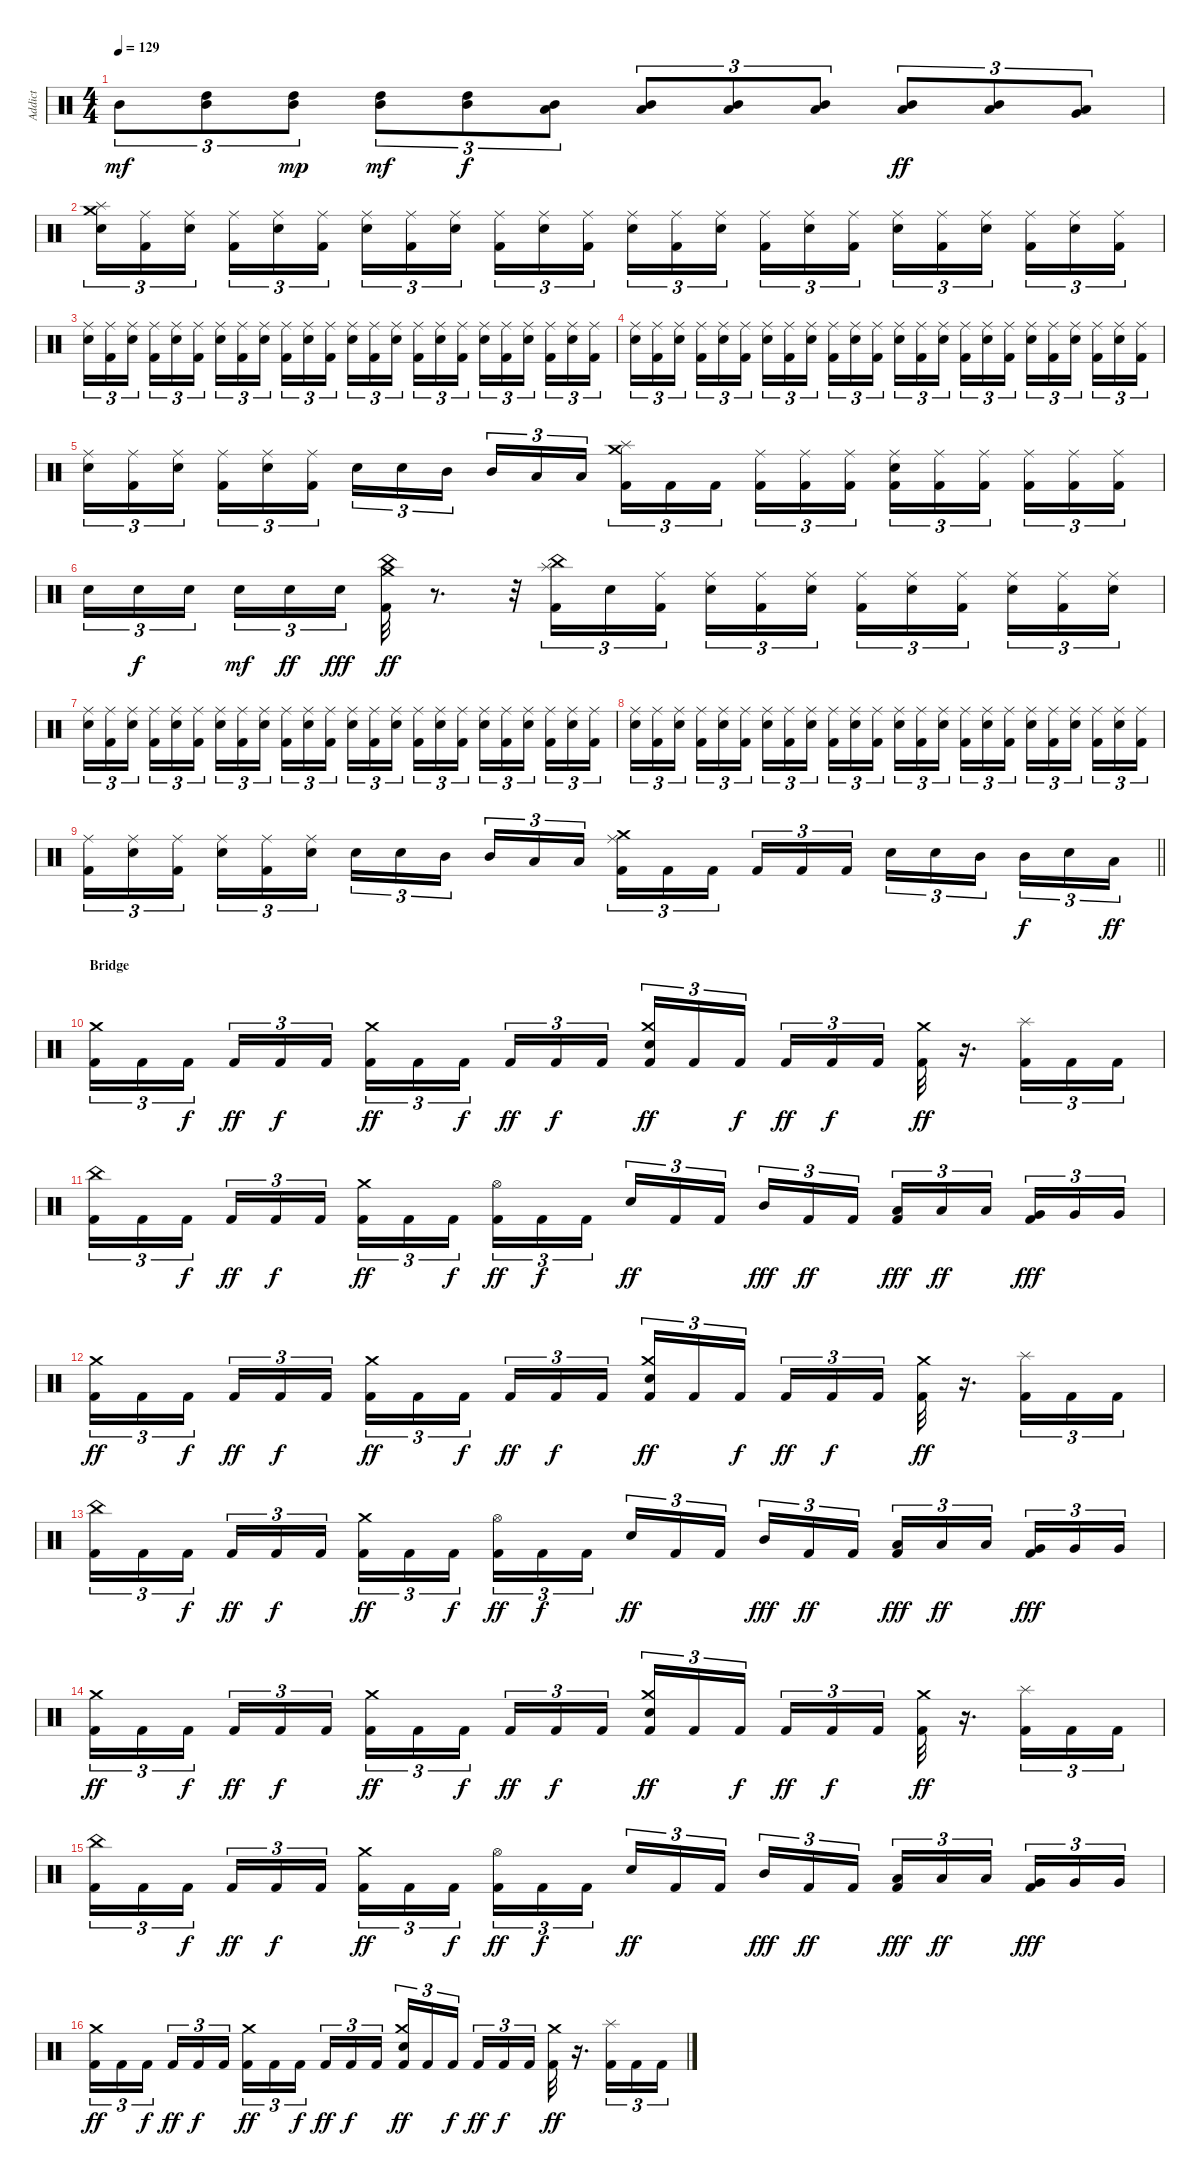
\track ("Addict" "Addict") {instrument percussion}
\staff {score}
\articulation defaults
\ts (4 4)
\tempo 129
\clef neutral
\ks c "Mid Tom (hit)".8{tu (3 2) dy mf}
("Mid Tom (hit)" "High Tom (hit)").8{tu (3 2)} ("Mid Tom (hit)" "High Tom (hit)").8{tu (3 2) dy mp} ("Mid Tom (hit)" "High Tom (hit)").8{tu (3 2) dy mf} ("Mid Tom (hit)" "High Tom (hit)").8{tu (3 2) dy f} ("Low Tom (hit)" "Mid Tom (hit)").8{tu (3 2)} ("Low Tom (hit)" "Mid Tom (hit)").8{tu (3 2)} ("Low Tom (hit)" "Mid Tom (hit)").8{tu (3 2)} ("Low Tom (hit)" "Mid Tom (hit)").8{tu (3 2)} ("Low Tom (hit)" "Mid Tom (hit)").8{tu (3 2) dy ff} ("Low Tom (hit)" "Mid Tom (hit)").8{tu (3 2)} ("Low Tom (hit)" "Very Low Tom (hit)").8{tu (3 2)} |
("Snare (hit) 2" "Crash medium (hit)" "Splash (hit)").16{tu (3 2)} ("Kick (hit) 2" "Ride (middle)").16{tu (3 2)} ("Snare (hit) 2" "Ride (middle)").16{tu (3 2) beam splitsecondary} ("Kick (hit) 2" "Ride (middle)").16{tu (3 2)} ("Snare (hit) 2" "Ride (middle)").16{tu (3 2)} ("Kick (hit) 2" "Ride (middle)").16{tu (3 2)} ("Snare (hit) 2" "Ride (middle)").16{tu (3 2)} ("Kick (hit) 2" "Ride (middle)").16{tu (3 2)} ("Snare (hit) 2" "Ride (middle)").16{tu (3 2) beam splitsecondary} ("Kick (hit) 2" "Ride (middle)").16{tu (3 2)} ("Snare (hit) 2" "Ride (middle)").16{tu (3 2)} ("Kick (hit) 2" "Ride (middle)").16{tu (3 2)} ("Snare (hit) 2" "Ride (middle)").16{tu (3 2)} ("Kick (hit) 2" "Ride (middle)").16{tu (3 2)} ("Snare (hit) 2" "Ride (middle)").16{tu (3 2) beam splitsecondary} ("Kick (hit) 2" "Ride (middle)").16{tu (3 2)} ("Snare (hit) 2" "Ride (middle)").16{tu (3 2)} ("Kick (hit) 2" "Ride (middle)").16{tu (3 2)} ("Snare (hit) 2" "Ride (middle)").16{tu (3 2)} ("Kick (hit) 2" "Ride (middle)").16{tu (3 2)} ("Snare (hit) 2" "Ride (middle)").16{tu (3 2) beam splitsecondary} ("Kick (hit) 2" "Ride (middle)").16{tu (3 2)} ("Snare (hit) 2" "Ride (middle)").16{tu (3 2)} ("Kick (hit) 2" "Ride (middle)").16{tu (3 2)} |
("Snare (hit) 2" "Ride (middle)").16{tu (3 2)} ("Kick (hit) 2" "Ride (middle)").16{tu (3 2)} ("Snare (hit) 2" "Ride (middle)").16{tu (3 2) beam splitsecondary} ("Kick (hit) 2" "Ride (middle)").16{tu (3 2)} ("Snare (hit) 2" "Ride (middle)").16{tu (3 2)} ("Kick (hit) 2" "Ride (middle)").16{tu (3 2)} ("Snare (hit) 2" "Ride (middle)").16{tu (3 2)} ("Kick (hit) 2" "Ride (middle)").16{tu (3 2)} ("Snare (hit) 2" "Ride (middle)").16{tu (3 2) beam splitsecondary} ("Kick (hit) 2" "Ride (middle)").16{tu (3 2)} ("Snare (hit) 2" "Ride (middle)").16{tu (3 2)} ("Kick (hit) 2" "Ride (middle)").16{tu (3 2)} ("Snare (hit) 2" "Ride (middle)").16{tu (3 2)} ("Kick (hit) 2" "Ride (middle)").16{tu (3 2)} ("Snare (hit) 2" "Ride (middle)").16{tu (3 2) beam splitsecondary} ("Kick (hit) 2" "Ride (middle)").16{tu (3 2)} ("Snare (hit) 2" "Ride (middle)").16{tu (3 2)} ("Kick (hit) 2" "Ride (middle)").16{tu (3 2)} ("Snare (hit) 2" "Ride (middle)").16{tu (3 2)} ("Kick (hit) 2" "Ride (middle)").16{tu (3 2)} ("Snare (hit) 2" "Ride (middle)").16{tu (3 2) beam splitsecondary} ("Kick (hit) 2" "Ride (middle)").16{tu (3 2)} ("Snare (hit) 2" "Ride (middle)").16{tu (3 2)} ("Kick (hit) 2" "Ride (middle)").16{tu (3 2)} |
("Snare (hit) 2" "Ride (middle)").16{tu (3 2)} ("Kick (hit) 2" "Ride (middle)").16{tu (3 2)} ("Snare (hit) 2" "Ride (middle)").16{tu (3 2) beam splitsecondary} ("Kick (hit) 2" "Ride (middle)").16{tu (3 2)} ("Snare (hit) 2" "Ride (middle)").16{tu (3 2)} ("Kick (hit) 2" "Ride (middle)").16{tu (3 2)} ("Snare (hit) 2" "Ride (middle)").16{tu (3 2)} ("Kick (hit) 2" "Ride (middle)").16{tu (3 2)} ("Snare (hit) 2" "Ride (middle)").16{tu (3 2) beam splitsecondary} ("Kick (hit) 2" "Ride (middle)").16{tu (3 2)} ("Snare (hit) 2" "Ride (middle)").16{tu (3 2)} ("Kick (hit) 2" "Ride (middle)").16{tu (3 2)} ("Snare (hit) 2" "Ride (middle)").16{tu (3 2)} ("Kick (hit) 2" "Ride (middle)").16{tu (3 2)} ("Snare (hit) 2" "Ride (middle)").16{tu (3 2) beam splitsecondary} ("Kick (hit) 2" "Ride (middle)").16{tu (3 2)} ("Snare (hit) 2" "Ride (middle)").16{tu (3 2)} ("Kick (hit) 2" "Ride (middle)").16{tu (3 2)} ("Snare (hit) 2" "Ride (middle)").16{tu (3 2)} ("Kick (hit) 2" "Ride (middle)").16{tu (3 2)} ("Snare (hit) 2" "Ride (middle)").16{tu (3 2) beam splitsecondary} ("Kick (hit) 2" "Ride (middle)").16{tu (3 2)} ("Snare (hit) 2" "Ride (middle)").16{tu (3 2)} ("Kick (hit) 2" "Ride (middle)").16{tu (3 2)} |
("Snare (hit) 2" "Ride (middle)").16{tu (3 2)} ("Kick (hit) 2" "Ride (middle)").16{tu (3 2)} ("Snare (hit) 2" "Ride (middle)").16{tu (3 2) beam splitsecondary} ("Kick (hit) 2" "Ride (middle)").16{tu (3 2)} ("Snare (hit) 2" "Ride (middle)").16{tu (3 2)} ("Kick (hit) 2" "Ride (middle)").16{tu (3 2)} "Snare (hit) 2".16{tu (3 2)} "Snare (hit) 2".16{tu (3 2)} "Mid Tom (hit)".16{tu (3 2) beam splitsecondary} "Mid Tom (hit)".16{tu (3 2)} "Low Tom (hit)".16{tu (3 2)} "Low Tom (hit)".16{tu (3 2)} ("Kick (hit) 2" "Crash medium (hit)" "Splash (hit)").16{tu (3 2)} "Kick (hit) 2".16{tu (3 2)} "Kick (hit) 2".16{tu (3 2) beam splitsecondary} ("Kick (hit) 2" "Ride (middle)").16{tu (3 2)} ("Kick (hit) 2" "Ride (middle)").16{tu (3 2)} ("Kick (hit) 2" "Ride (middle)").16{tu (3 2)} ("Kick (hit) 2" "Snare (hit) 2" "Ride (middle)").16{tu (3 2)} ("Kick (hit) 2" "Ride (middle)").16{tu (3 2)} ("Kick (hit) 2" "Ride (middle)").16{tu (3 2) beam splitsecondary} ("Kick (hit) 2" "Ride (middle)").16{tu (3 2)} ("Kick (hit) 2" "Ride (middle)").16{tu (3 2)} ("Kick (hit) 2" "Ride (middle)").16{tu (3 2)} |
"Snare (hit) 2".16{tu (3 2)} "Snare (hit) 2".16{tu (3 2) dy f} "Snare (hit) 2".16{tu (3 2) beam splitsecondary} "Snare (hit) 2".16{tu (3 2) dy mf} "Snare (hit) 2".16{tu (3 2) dy ff} "Snare (hit) 2".16{tu (3 2) dy fff} ("Kick (hit) 2" "Crash medium (hit)" "China (hit)").32{dy ff} r.8{d} r.32 ("Kick (hit) 2" "Splash (hit)" "China (hit)").16{tu (3 2)} "Snare (hit) 2".16{tu (3 2)} ("Kick (hit) 2" "Ride (middle)").16{tu (3 2) beam splitsecondary} ("Snare (hit) 2" "Ride (middle)").16{tu (3 2)} ("Kick (hit) 2" "Ride (middle)").16{tu (3 2)} ("Snare (hit) 2" "Ride (middle)").16{tu (3 2)} ("Kick (hit) 2" "Ride (middle)").16{tu (3 2)} ("Snare (hit) 2" "Ride (middle)").16{tu (3 2)} ("Kick (hit) 2" "Ride (middle)").16{tu (3 2) beam splitsecondary} ("Snare (hit) 2" "Ride (middle)").16{tu (3 2)} ("Kick (hit) 2" "Ride (middle)").16{tu (3 2)} ("Snare (hit) 2" "Ride (middle)").16{tu (3 2)} |
("Snare (hit) 2" "Ride (middle)").16{tu (3 2)} ("Kick (hit) 2" "Ride (middle)").16{tu (3 2)} ("Snare (hit) 2" "Ride (middle)").16{tu (3 2) beam splitsecondary} ("Kick (hit) 2" "Ride (middle)").16{tu (3 2)} ("Snare (hit) 2" "Ride (middle)").16{tu (3 2)} ("Kick (hit) 2" "Ride (middle)").16{tu (3 2)} ("Snare (hit) 2" "Ride (middle)").16{tu (3 2)} ("Kick (hit) 2" "Ride (middle)").16{tu (3 2)} ("Snare (hit) 2" "Ride (middle)").16{tu (3 2) beam splitsecondary} ("Kick (hit) 2" "Ride (middle)").16{tu (3 2)} ("Snare (hit) 2" "Ride (middle)").16{tu (3 2)} ("Kick (hit) 2" "Ride (middle)").16{tu (3 2)} ("Snare (hit) 2" "Ride (middle)").16{tu (3 2)} ("Kick (hit) 2" "Ride (middle)").16{tu (3 2)} ("Snare (hit) 2" "Ride (middle)").16{tu (3 2) beam splitsecondary} ("Kick (hit) 2" "Ride (middle)").16{tu (3 2)} ("Snare (hit) 2" "Ride (middle)").16{tu (3 2)} ("Kick (hit) 2" "Ride (middle)").16{tu (3 2)} ("Snare (hit) 2" "Ride (middle)").16{tu (3 2)} ("Kick (hit) 2" "Ride (middle)").16{tu (3 2)} ("Snare (hit) 2" "Ride (middle)").16{tu (3 2) beam splitsecondary} ("Kick (hit) 2" "Ride (middle)").16{tu (3 2)} ("Snare (hit) 2" "Ride (middle)").16{tu (3 2)} ("Kick (hit) 2" "Ride (middle)").16{tu (3 2)} |
("Snare (hit) 2" "Ride (middle)").16{tu (3 2)} ("Kick (hit) 2" "Ride (middle)").16{tu (3 2)} ("Snare (hit) 2" "Ride (middle)").16{tu (3 2) beam splitsecondary} ("Kick (hit) 2" "Ride (middle)").16{tu (3 2)} ("Snare (hit) 2" "Ride (middle)").16{tu (3 2)} ("Kick (hit) 2" "Ride (middle)").16{tu (3 2)} ("Snare (hit) 2" "Ride (middle)").16{tu (3 2)} ("Kick (hit) 2" "Ride (middle)").16{tu (3 2)} ("Snare (hit) 2" "Ride (middle)").16{tu (3 2) beam splitsecondary} ("Kick (hit) 2" "Ride (middle)").16{tu (3 2)} ("Snare (hit) 2" "Ride (middle)").16{tu (3 2)} ("Kick (hit) 2" "Ride (middle)").16{tu (3 2)} ("Snare (hit) 2" "Ride (middle)").16{tu (3 2)} ("Kick (hit) 2" "Ride (middle)").16{tu (3 2)} ("Snare (hit) 2" "Ride (middle)").16{tu (3 2) beam splitsecondary} ("Kick (hit) 2" "Ride (middle)").16{tu (3 2)} ("Snare (hit) 2" "Ride (middle)").16{tu (3 2)} ("Kick (hit) 2" "Ride (middle)").16{tu (3 2)} ("Snare (hit) 2" "Ride (middle)").16{tu (3 2)} ("Kick (hit) 2" "Ride (middle)").16{tu (3 2)} ("Snare (hit) 2" "Ride (middle)").16{tu (3 2) beam splitsecondary} ("Kick (hit) 2" "Ride (middle)").16{tu (3 2)} ("Snare (hit) 2" "Ride (middle)").16{tu (3 2)} ("Kick (hit) 2" "Ride (middle)").16{tu (3 2)} |
\barLineRight lightlight
("Kick (hit) 2" "Ride (middle)").16{tu (3 2)} ("Snare (hit) 2" "Ride (middle)").16{tu (3 2)} ("Kick (hit) 2" "Ride (middle)").16{tu (3 2) beam splitsecondary} ("Snare (hit) 2" "Ride (middle)").16{tu (3 2)} ("Kick (hit) 2" "Ride (middle)").16{tu (3 2)} ("Snare (hit) 2" "Ride (middle)").16{tu (3 2)} "Snare (hit) 2".16{tu (3 2)} "Snare (hit) 2".16{tu (3 2)} "Mid Tom (hit)".16{tu (3 2) beam splitsecondary} "Mid Tom (hit)".16{tu (3 2)} "Low Tom (hit)".16{tu (3 2)} "Low Tom (hit)".16{tu (3 2)} ("Kick (hit) 2" "Ride (middle)" "Crash medium (hit)").16{tu (3 2)} "Kick (hit) 2".16{tu (3 2)} "Kick (hit) 2".16{tu (3 2) beam splitsecondary} "Kick (hit) 2".16{tu (3 2)} "Kick (hit) 2".16{tu (3 2)} "Kick (hit) 2".16{tu (3 2)} "Snare (hit) 2".16{tu (3 2)} "Snare (hit) 2".16{tu (3 2)} "Mid Tom (hit)".16{tu (3 2) beam splitsecondary} "Mid Tom (hit)".16{tu (3 2) dy f} "Snare (hit) 2".16{tu (3 2)} "Low Tom (hit)".16{tu (3 2) dy ff} |
\section ("" "Bridge")
("Kick (hit) 2" "Crash medium (hit)").16{tu (3 2)} "Kick (hit) 2".16{tu (3 2)} "Kick (hit) 2".16{tu (3 2) dy f beam splitsecondary} "Kick (hit) 2".16{tu (3 2) dy ff} "Kick (hit) 2".16{tu (3 2) dy f} "Kick (hit) 2".16{tu (3 2)} ("Kick (hit) 2" "Crash medium (hit)").16{tu (3 2) dy ff} "Kick (hit) 2".16{tu (3 2)} "Kick (hit) 2".16{tu (3 2) dy f beam splitsecondary} "Kick (hit) 2".16{tu (3 2) dy ff} "Kick (hit) 2".16{tu (3 2) dy f} "Kick (hit) 2".16{tu (3 2)} ("Kick (hit) 2" "Snare (hit) 2" "Crash medium (hit)").16{tu (3 2) dy ff} "Kick (hit) 2".16{tu (3 2)} "Kick (hit) 2".16{tu (3 2) dy f beam splitsecondary} "Kick (hit) 2".16{tu (3 2) dy ff} "Kick (hit) 2".16{tu (3 2) dy f} "Kick (hit) 2".16{tu (3 2)} ("Kick (hit) 2" "Crash medium (hit)").32{dy ff} r.16{d} ("Kick (hit) 2" "Splash (hit)").16{tu (3 2)} "Kick (hit) 2".16{tu (3 2)} "Kick (hit) 2".16{tu (3 2)} |
("Kick (hit) 2" "China (hit)").16{tu (3 2)} "Kick (hit) 2".16{tu (3 2)} "Kick (hit) 2".16{tu (3 2) dy f beam splitsecondary} "Kick (hit) 2".16{tu (3 2) dy ff} "Kick (hit) 2".16{tu (3 2) dy f} "Kick (hit) 2".16{tu (3 2)} ("Kick (hit) 2" "Crash medium (hit)").16{tu (3 2) dy ff} "Kick (hit) 2".16{tu (3 2)} "Kick (hit) 2".16{tu (3 2) dy f beam splitsecondary} ("Kick (hit) 2" "Hi-Hat (open)").16{tu (3 2) dy ff} "Kick (hit) 2".16{tu (3 2) dy f} "Kick (hit) 2".16{tu (3 2)} "Snare (hit) 2".16{tu (3 2) dy ff} "Kick (hit) 2".16{tu (3 2)} "Kick (hit) 2".16{tu (3 2) beam splitsecondary} "Mid Tom (hit)".16{tu (3 2) dy fff} "Kick (hit) 2".16{tu (3 2) dy ff} "Kick (hit) 2".16{tu (3 2)} ("Kick (hit) 2" "Low Tom (hit)").16{tu (3 2) dy fff} "Low Tom (hit)".16{tu (3 2) dy ff} "Low Tom (hit)".16{tu (3 2) beam splitsecondary} ("Kick (hit) 2" "Very Low Tom (hit)").16{tu (3 2) dy fff} "Very Low Tom (hit)".16{tu (3 2)} "Very Low Tom (hit)".16{tu (3 2)} |
("Kick (hit) 2" "Crash medium (hit)").16{tu (3 2) dy ff} "Kick (hit) 2".16{tu (3 2)} "Kick (hit) 2".16{tu (3 2) dy f beam splitsecondary} "Kick (hit) 2".16{tu (3 2) dy ff} "Kick (hit) 2".16{tu (3 2) dy f} "Kick (hit) 2".16{tu (3 2)} ("Kick (hit) 2" "Crash medium (hit)").16{tu (3 2) dy ff} "Kick (hit) 2".16{tu (3 2)} "Kick (hit) 2".16{tu (3 2) dy f beam splitsecondary} "Kick (hit) 2".16{tu (3 2) dy ff} "Kick (hit) 2".16{tu (3 2) dy f} "Kick (hit) 2".16{tu (3 2)} ("Kick (hit) 2" "Snare (hit) 2" "Crash medium (hit)").16{tu (3 2) dy ff} "Kick (hit) 2".16{tu (3 2)} "Kick (hit) 2".16{tu (3 2) dy f beam splitsecondary} "Kick (hit) 2".16{tu (3 2) dy ff} "Kick (hit) 2".16{tu (3 2) dy f} "Kick (hit) 2".16{tu (3 2)} ("Kick (hit) 2" "Crash medium (hit)").32{dy ff} r.16{d} ("Kick (hit) 2" "Splash (hit)").16{tu (3 2)} "Kick (hit) 2".16{tu (3 2)} "Kick (hit) 2".16{tu (3 2)} |
("Kick (hit) 2" "China (hit)").16{tu (3 2)} "Kick (hit) 2".16{tu (3 2)} "Kick (hit) 2".16{tu (3 2) dy f beam splitsecondary} "Kick (hit) 2".16{tu (3 2) dy ff} "Kick (hit) 2".16{tu (3 2) dy f} "Kick (hit) 2".16{tu (3 2)} ("Kick (hit) 2" "Crash medium (hit)").16{tu (3 2) dy ff} "Kick (hit) 2".16{tu (3 2)} "Kick (hit) 2".16{tu (3 2) dy f beam splitsecondary} ("Kick (hit) 2" "Hi-Hat (open)").16{tu (3 2) dy ff} "Kick (hit) 2".16{tu (3 2) dy f} "Kick (hit) 2".16{tu (3 2)} "Snare (hit) 2".16{tu (3 2) dy ff} "Kick (hit) 2".16{tu (3 2)} "Kick (hit) 2".16{tu (3 2) beam splitsecondary} "Mid Tom (hit)".16{tu (3 2) dy fff} "Kick (hit) 2".16{tu (3 2) dy ff} "Kick (hit) 2".16{tu (3 2)} ("Kick (hit) 2" "Low Tom (hit)").16{tu (3 2) dy fff} "Low Tom (hit)".16{tu (3 2) dy ff} "Low Tom (hit)".16{tu (3 2) beam splitsecondary} ("Kick (hit) 2" "Very Low Tom (hit)").16{tu (3 2) dy fff} "Very Low Tom (hit)".16{tu (3 2)} "Very Low Tom (hit)".16{tu (3 2)} |
("Kick (hit) 2" "Crash medium (hit)").16{tu (3 2) dy ff} "Kick (hit) 2".16{tu (3 2)} "Kick (hit) 2".16{tu (3 2) dy f beam splitsecondary} "Kick (hit) 2".16{tu (3 2) dy ff} "Kick (hit) 2".16{tu (3 2) dy f} "Kick (hit) 2".16{tu (3 2)} ("Kick (hit) 2" "Crash medium (hit)").16{tu (3 2) dy ff} "Kick (hit) 2".16{tu (3 2)} "Kick (hit) 2".16{tu (3 2) dy f beam splitsecondary} "Kick (hit) 2".16{tu (3 2) dy ff} "Kick (hit) 2".16{tu (3 2) dy f} "Kick (hit) 2".16{tu (3 2)} ("Kick (hit) 2" "Snare (hit) 2" "Crash medium (hit)").16{tu (3 2) dy ff} "Kick (hit) 2".16{tu (3 2)} "Kick (hit) 2".16{tu (3 2) dy f beam splitsecondary} "Kick (hit) 2".16{tu (3 2) dy ff} "Kick (hit) 2".16{tu (3 2) dy f} "Kick (hit) 2".16{tu (3 2)} ("Kick (hit) 2" "Crash medium (hit)").32{dy ff} r.16{d} ("Kick (hit) 2" "Splash (hit)").16{tu (3 2)} "Kick (hit) 2".16{tu (3 2)} "Kick (hit) 2".16{tu (3 2)} |
("Kick (hit) 2" "China (hit)").16{tu (3 2)} "Kick (hit) 2".16{tu (3 2)} "Kick (hit) 2".16{tu (3 2) dy f beam splitsecondary} "Kick (hit) 2".16{tu (3 2) dy ff} "Kick (hit) 2".16{tu (3 2) dy f} "Kick (hit) 2".16{tu (3 2)} ("Kick (hit) 2" "Crash medium (hit)").16{tu (3 2) dy ff} "Kick (hit) 2".16{tu (3 2)} "Kick (hit) 2".16{tu (3 2) dy f beam splitsecondary} ("Kick (hit) 2" "Hi-Hat (open)").16{tu (3 2) dy ff} "Kick (hit) 2".16{tu (3 2) dy f} "Kick (hit) 2".16{tu (3 2)} "Snare (hit) 2".16{tu (3 2) dy ff} "Kick (hit) 2".16{tu (3 2)} "Kick (hit) 2".16{tu (3 2) beam splitsecondary} "Mid Tom (hit)".16{tu (3 2) dy fff} "Kick (hit) 2".16{tu (3 2) dy ff} "Kick (hit) 2".16{tu (3 2)} ("Kick (hit) 2" "Low Tom (hit)").16{tu (3 2) dy fff} "Low Tom (hit)".16{tu (3 2) dy ff} "Low Tom (hit)".16{tu (3 2) beam splitsecondary} ("Kick (hit) 2" "Very Low Tom (hit)").16{tu (3 2) dy fff} "Very Low Tom (hit)".16{tu (3 2)} "Very Low Tom (hit)".16{tu (3 2)} |
("Kick (hit) 2" "Crash medium (hit)").16{tu (3 2) dy ff} "Kick (hit) 2".16{tu (3 2)} "Kick (hit) 2".16{tu (3 2) dy f beam splitsecondary} "Kick (hit) 2".16{tu (3 2) dy ff} "Kick (hit) 2".16{tu (3 2) dy f} "Kick (hit) 2".16{tu (3 2)} ("Kick (hit) 2" "Crash medium (hit)").16{tu (3 2) dy ff} "Kick (hit) 2".16{tu (3 2)} "Kick (hit) 2".16{tu (3 2) dy f beam splitsecondary} "Kick (hit) 2".16{tu (3 2) dy ff} "Kick (hit) 2".16{tu (3 2) dy f} "Kick (hit) 2".16{tu (3 2)} ("Kick (hit) 2" "Snare (hit) 2" "Crash medium (hit)").16{tu (3 2) dy ff} "Kick (hit) 2".16{tu (3 2)} "Kick (hit) 2".16{tu (3 2) dy f beam splitsecondary} "Kick (hit) 2".16{tu (3 2) dy ff} "Kick (hit) 2".16{tu (3 2) dy f} "Kick (hit) 2".16{tu (3 2)} ("Kick (hit) 2" "Crash medium (hit)").32{dy ff} r.16{d} ("Kick (hit) 2" "Splash (hit)").16{tu (3 2)} "Kick (hit) 2".16{tu (3 2)} "Kick (hit) 2".16{tu (3 2)}
